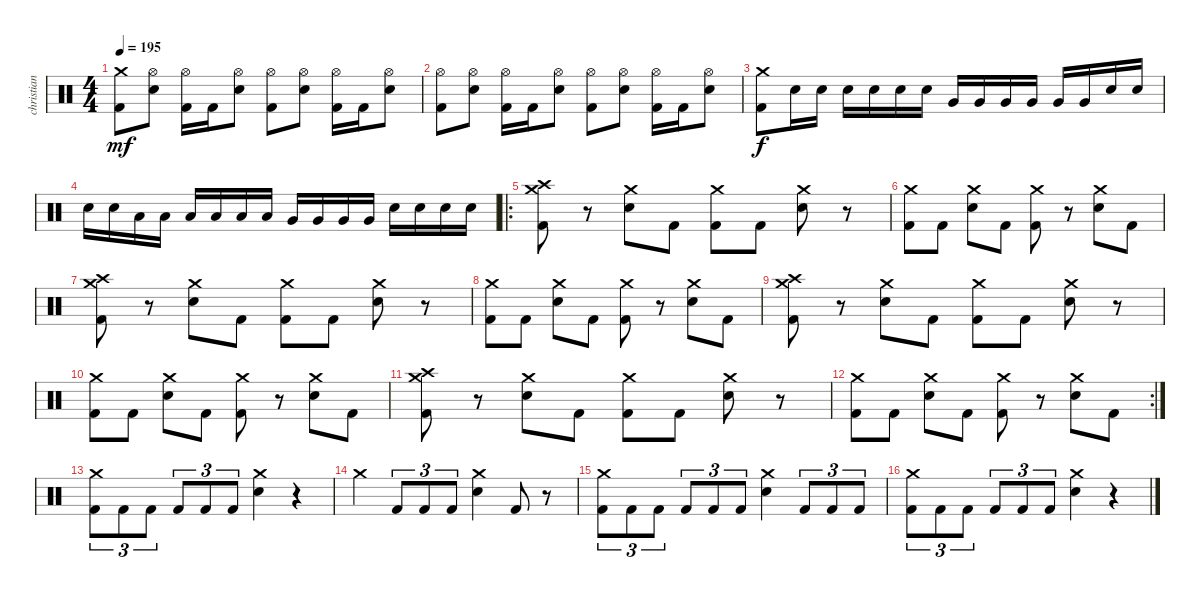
\track ("christian" "christian") {instrument percussion}
\staff {score}
\articulation defaults
\ts (4 4)
\tempo 195
\clef neutral
\ks c
("Crash medium (hit)" "Kick (hit) 2").8{dy mf} ("Hi-Hat (open)" "Electric Snare (hit)").8 ("Hi-Hat (open)" "Kick (hit) 2").16 "Kick (hit) 2".16 ("Hi-Hat (open)" "Electric Snare (hit)").8 ("Hi-Hat (open)" "Kick (hit) 2").8 ("Hi-Hat (open)" "Electric Snare (hit)").8 ("Hi-Hat (open)" "Kick (hit) 2").16 "Kick (hit) 2".16 ("Hi-Hat (open)" "Electric Snare (hit)").8 |
("Hi-Hat (open)" "Kick (hit) 2").8 ("Hi-Hat (open)" "Electric Snare (hit)").8 ("Hi-Hat (open)" "Kick (hit) 2").16 "Kick (hit) 2".16 ("Hi-Hat (open)" "Electric Snare (hit)").8 ("Hi-Hat (open)" "Kick (hit) 2").8 ("Hi-Hat (open)" "Electric Snare (hit)").8 ("Hi-Hat (open)" "Kick (hit) 2").16 "Kick (hit) 2".16 ("Hi-Hat (open)" "Electric Snare (hit)").8 |
("Crash medium (hit)" "Kick (hit) 2").8{dy f} "Electric Snare (hit)".16 "Electric Snare (hit)".16 "Electric Snare (hit)".16 "Electric Snare (hit)".16 "Electric Snare (hit)".16 "Electric Snare (hit)".16 "Very Low Tom (hit)".16 "Very Low Tom (hit)".16 "Very Low Tom (hit)".16 "Very Low Tom (hit)".16 "Very Low Tom (hit)".16 "Very Low Tom (hit)".16 "Electric Snare (hit)".16 "Electric Snare (hit)".16 |
"Electric Snare (hit)".16 "Electric Snare (hit)".16 "Low Tom (hit)".16 "Low Tom (hit)".16 "Low Tom (hit)".16 "Low Tom (hit)".16 "Low Tom (hit)".16 "Low Tom (hit)".16 "Very Low Tom (hit)".16 "Very Low Tom (hit)".16 "Very Low Tom (hit)".16 "Very Low Tom (hit)".16 "Electric Snare (hit)".16 "Electric Snare (hit)".16 "Electric Snare (hit)".16 "Electric Snare (hit)".16 |
\ro
("Crash medium (hit)" "Crash high (hit)" "Kick (hit) 2").8 r.8 ("Crash medium (hit)" "Electric Snare (hit)").8 "Kick (hit) 2".8 ("Crash medium (hit)" "Kick (hit) 2").8 "Kick (hit) 2".8 ("Crash medium (hit)" "Electric Snare (hit)").8 r.8 |
("Crash medium (hit)" "Kick (hit) 2").8 "Kick (hit) 2".8 ("Crash medium (hit)" "Electric Snare (hit)").8 "Kick (hit) 2".8 ("Crash medium (hit)" "Kick (hit) 2").8 r.8 ("Crash medium (hit)" "Electric Snare (hit)").8 "Kick (hit) 2".8 |
("Crash medium (hit)" "Crash high (hit)" "Kick (hit) 2").8 r.8 ("Crash medium (hit)" "Electric Snare (hit)").8 "Kick (hit) 2".8 ("Crash medium (hit)" "Kick (hit) 2").8 "Kick (hit) 2".8 ("Crash medium (hit)" "Electric Snare (hit)").8 r.8 |
("Crash medium (hit)" "Kick (hit) 2").8 "Kick (hit) 2".8 ("Crash medium (hit)" "Electric Snare (hit)").8 "Kick (hit) 2".8 ("Crash medium (hit)" "Kick (hit) 2").8 r.8 ("Crash medium (hit)" "Electric Snare (hit)").8 "Kick (hit) 2".8 |
("Crash medium (hit)" "Crash high (hit)" "Kick (hit) 2").8 r.8 ("Crash medium (hit)" "Electric Snare (hit)").8 "Kick (hit) 2".8 ("Crash medium (hit)" "Kick (hit) 2").8 "Kick (hit) 2".8 ("Crash medium (hit)" "Electric Snare (hit)").8 r.8 |
("Crash medium (hit)" "Kick (hit) 2").8 "Kick (hit) 2".8 ("Crash medium (hit)" "Electric Snare (hit)").8 "Kick (hit) 2".8 ("Crash medium (hit)" "Kick (hit) 2").8 r.8 ("Crash medium (hit)" "Electric Snare (hit)").8 "Kick (hit) 2".8 |
("Crash medium (hit)" "Crash high (hit)" "Kick (hit) 2").8 r.8 ("Crash medium (hit)" "Electric Snare (hit)").8 "Kick (hit) 2".8 ("Crash medium (hit)" "Kick (hit) 2").8 "Kick (hit) 2".8 ("Crash medium (hit)" "Electric Snare (hit)").8 r.8 |
\rc 2
("Crash medium (hit)" "Kick (hit) 2").8 "Kick (hit) 2".8 ("Crash medium (hit)" "Electric Snare (hit)").8 "Kick (hit) 2".8 ("Crash medium (hit)" "Kick (hit) 2").8 r.8 ("Crash medium (hit)" "Electric Snare (hit)").8 "Kick (hit) 2".8 |
("Crash medium (hit)" "Kick (hit) 2").8{tu (3 2)} "Kick (hit) 2".8{tu (3 2)} "Kick (hit) 2".8{tu (3 2)} "Kick (hit) 2".8{tu (3 2)} "Kick (hit) 2".8{tu (3 2)} "Kick (hit) 2".8{tu (3 2)} ("Crash medium (hit)" "Electric Snare (hit)").4 r.4 |
"Crash medium (hit)".4 "Kick (hit) 2".8{tu (3 2)} "Kick (hit) 2".8{tu (3 2)} "Kick (hit) 2".8{tu (3 2)} ("Crash medium (hit)" "Electric Snare (hit)").4 "Kick (hit) 2".8 r.8 |
("Crash medium (hit)" "Kick (hit) 2").8{tu (3 2)} "Kick (hit) 2".8{tu (3 2)} "Kick (hit) 2".8{tu (3 2)} "Kick (hit) 2".8{tu (3 2)} "Kick (hit) 2".8{tu (3 2)} "Kick (hit) 2".8{tu (3 2)} ("Crash medium (hit)" "Electric Snare (hit)").4 "Kick (hit) 2".8{tu (3 2)} "Kick (hit) 2".8{tu (3 2)} "Kick (hit) 2".8{tu (3 2)} |
("Crash medium (hit)" "Kick (hit) 2").8{tu (3 2)} "Kick (hit) 2".8{tu (3 2)} "Kick (hit) 2".8{tu (3 2)} "Kick (hit) 2".8{tu (3 2)} "Kick (hit) 2".8{tu (3 2)} "Kick (hit) 2".8{tu (3 2)} ("Crash medium (hit)" "Electric Snare (hit)").4 r.4
